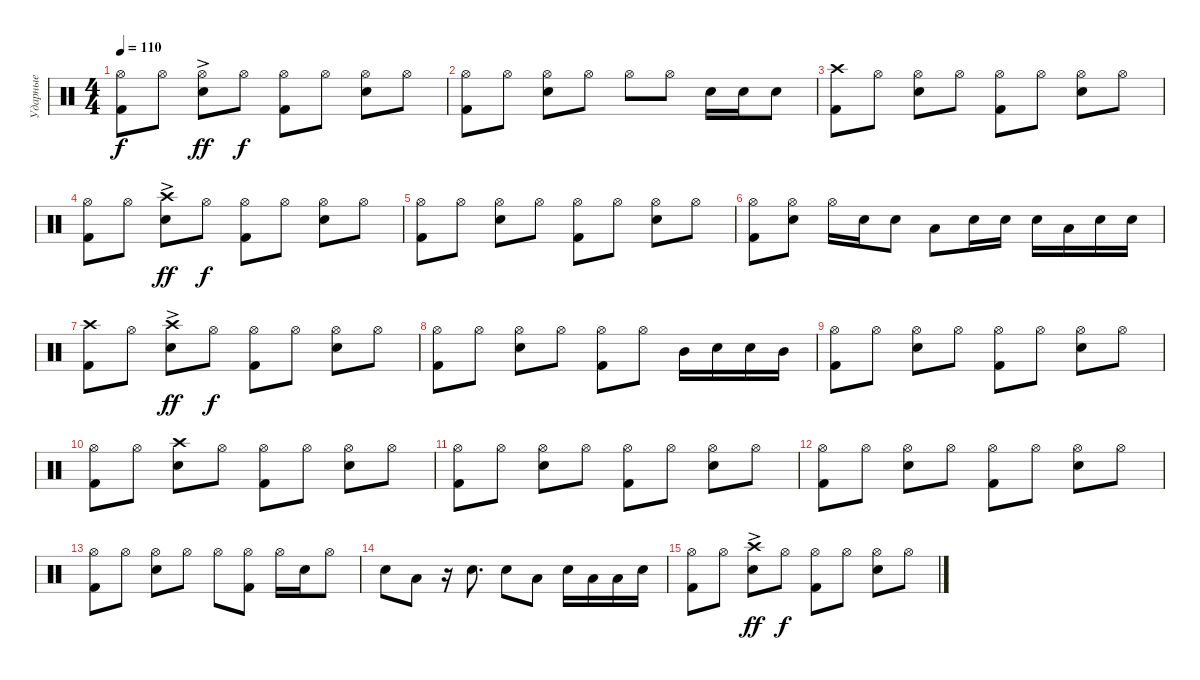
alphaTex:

\track ("Ударные" "Ударные") {instrument percussion}
\staff
\articulation defaults
\ts (4 4)
\tempo 110
\clef neutral
\ks c
("Kick (hit) 2" "Hi-Hat (open)").8{dy f} "Hi-Hat (open)".8 ("Snare (hit) 2" "Hi-Hat (open)"{ac}).8{dy ff} "Hi-Hat (open)".8{dy f} ("Kick (hit) 2" "Hi-Hat (open)").8 "Hi-Hat (open)".8 ("Snare (hit) 2" "Hi-Hat (open)").8 "Hi-Hat (open)".8 |
("Kick (hit) 2" "Hi-Hat (open)").8 "Hi-Hat (open)".8 ("Snare (hit) 2" "Hi-Hat (open)").8 "Hi-Hat (open)".8 "Hi-Hat (open)".8 "Hi-Hat (open)".8 "Snare (hit) 2".16 "Snare (hit) 2".16 "Snare (hit) 2".8 |
("Kick (hit) 2" "Crash high (hit)").8 "Hi-Hat (open)".8 ("Snare (hit) 2" "Hi-Hat (open)").8 "Hi-Hat (open)".8 ("Kick (hit) 2" "Hi-Hat (open)").8 "Hi-Hat (open)".8 ("Snare (hit) 2" "Hi-Hat (open)").8 "Hi-Hat (open)".8 |
("Kick (hit) 2" "Hi-Hat (open)").8 "Hi-Hat (open)".8 ("Snare (hit) 2" "Crash high (hit)"{ac}).8{dy ff} "Hi-Hat (open)".8{dy f} ("Kick (hit) 2" "Hi-Hat (open)").8 "Hi-Hat (open)".8 ("Snare (hit) 2" "Hi-Hat (open)").8 "Hi-Hat (open)".8 |
("Kick (hit) 2" "Hi-Hat (open)").8 "Hi-Hat (open)".8 ("Snare (hit) 2" "Hi-Hat (open)").8 "Hi-Hat (open)".8 ("Kick (hit) 2" "Hi-Hat (open)").8 "Hi-Hat (open)".8 ("Snare (hit) 2" "Hi-Hat (open)").8 "Hi-Hat (open)".8 |
("Kick (hit) 2" "Hi-Hat (open)").8 ("Snare (hit) 2" "Hi-Hat (open)").8 "Hi-Hat (open)".16 "Snare (hit) 2".16 "Snare (hit) 2".8 "Low Tom (hit)".8 "Snare (hit) 2".16 "Snare (hit) 2".16 "Snare (hit) 2".16 "Low Tom (hit)".16 "Snare (hit) 2".16 "Snare (hit) 2".16 |
("Kick (hit) 2" "Crash high (hit)").8 "Hi-Hat (open)".8 ("Snare (hit) 2" "Crash high (hit)"{ac}).8{dy ff} "Hi-Hat (open)".8{dy f} ("Kick (hit) 2" "Hi-Hat (open)").8 "Hi-Hat (open)".8 ("Snare (hit) 2" "Hi-Hat (open)").8 "Hi-Hat (open)".8 |
("Kick (hit) 2" "Hi-Hat (open)").8 "Hi-Hat (open)".8 ("Snare (hit) 2" "Hi-Hat (open)").8 "Hi-Hat (open)".8 ("Kick (hit) 2" "Hi-Hat (open)").8 "Hi-Hat (open)".8 "Mid Tom (hit)".16 "Snare (hit) 2".16 "Snare (hit) 2".16 "Mid Tom (hit)".16 |
("Kick (hit) 2" "Hi-Hat (open)").8 "Hi-Hat (open)".8 ("Snare (hit) 2" "Hi-Hat (open)").8 "Hi-Hat (open)".8 ("Kick (hit) 2" "Hi-Hat (open)").8 "Hi-Hat (open)".8 ("Snare (hit) 2" "Hi-Hat (open)").8 "Hi-Hat (open)".8 |
("Kick (hit) 2" "Hi-Hat (open)").8 "Hi-Hat (open)".8 ("Snare (hit) 2" "Crash high (hit)").8 "Hi-Hat (open)".8 ("Kick (hit) 2" "Hi-Hat (open)").8 "Hi-Hat (open)".8 ("Snare (hit) 2" "Hi-Hat (open)").8 "Hi-Hat (open)".8 |
("Kick (hit) 2" "Hi-Hat (open)").8 "Hi-Hat (open)".8 ("Snare (hit) 2" "Hi-Hat (open)").8 "Hi-Hat (open)".8 ("Kick (hit) 2" "Hi-Hat (open)").8 "Hi-Hat (open)".8 ("Snare (hit) 2" "Hi-Hat (open)").8 "Hi-Hat (open)".8 |
("Kick (hit) 2" "Hi-Hat (open)").8 "Hi-Hat (open)".8 ("Snare (hit) 2" "Hi-Hat (open)").8 "Hi-Hat (open)".8 ("Kick (hit) 2" "Hi-Hat (open)").8 "Hi-Hat (open)".8 ("Snare (hit) 2" "Hi-Hat (open)").8 "Hi-Hat (open)".8 |
("Kick (hit) 2" "Hi-Hat (open)").8 "Hi-Hat (open)".8 ("Snare (hit) 2" "Hi-Hat (open)").8 "Hi-Hat (open)".8 "Hi-Hat (open)".8 ("Kick (hit) 2" "Hi-Hat (open)").8 "Hi-Hat (open)".16 "Snare (hit) 2".16 "Hi-Hat (open)".8 |
"Snare (hit) 2".8 "Low Tom (hit)".8 r.16 "Snare (hit) 2".8{d} "Snare (hit) 2".8 "Low Tom (hit)".8 "Snare (hit) 2".16 "Low Tom (hit)".16 "Low Tom (hit)".16 "Snare (hit) 2".16 |
("Kick (hit) 2" "Hi-Hat (open)").8 "Hi-Hat (open)".8 ("Snare (hit) 2" "Crash high (hit)"{ac}).8{dy ff} "Hi-Hat (open)".8{dy f} ("Kick (hit) 2" "Hi-Hat (open)").8 "Hi-Hat (open)".8 ("Snare (hit) 2" "Hi-Hat (open)").8 "Hi-Hat (open)".8
